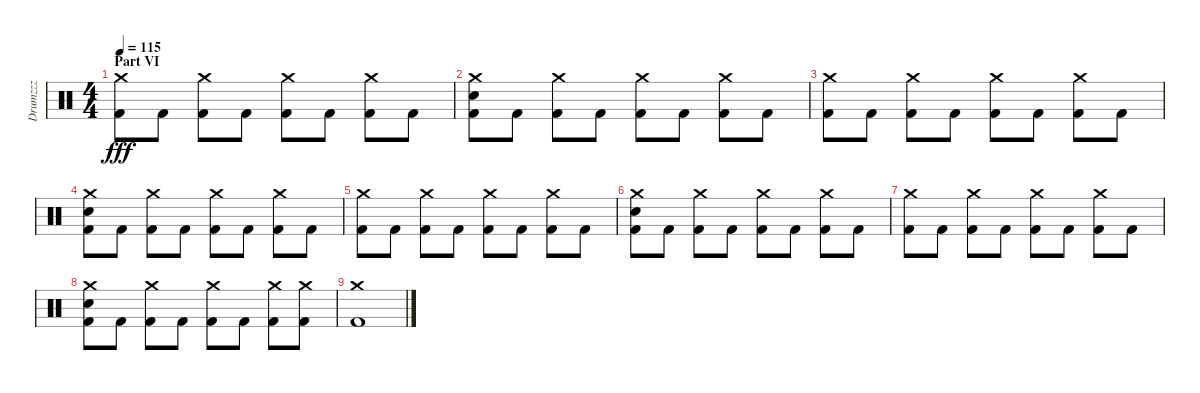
\track ("Drumzzz" "Drumzzz") {instrument percussion}
\staff {score}
\articulation defaults
\ts (4 4)
\section ("" "Part VI")
\tempo 115
\clef neutral
\ks c
("Crash medium (hit)" "Kick (hit) 2").8{dy fff} "Kick (hit) 2".8 ("Crash medium (hit)" "Kick (hit) 2").8 "Kick (hit) 2".8 ("Crash medium (hit)" "Kick (hit) 2").8 "Kick (hit) 2".8 ("Crash medium (hit)" "Kick (hit) 2").8 "Kick (hit) 2".8 |
("Crash medium (hit)" "Electric Snare (hit)" "Kick (hit) 2").8 "Kick (hit) 2".8 ("Crash medium (hit)" "Kick (hit) 2").8 "Kick (hit) 2".8 ("Crash medium (hit)" "Kick (hit) 2").8 "Kick (hit) 2".8 ("Crash medium (hit)" "Kick (hit) 2").8 "Kick (hit) 2".8 |
("Crash medium (hit)" "Kick (hit) 2").8 "Kick (hit) 2".8 ("Crash medium (hit)" "Kick (hit) 2").8 "Kick (hit) 2".8 ("Crash medium (hit)" "Kick (hit) 2").8 "Kick (hit) 2".8 ("Crash medium (hit)" "Kick (hit) 2").8 "Kick (hit) 2".8 |
("Crash medium (hit)" "Electric Snare (hit)" "Kick (hit) 2").8 "Kick (hit) 2".8 ("Crash medium (hit)" "Kick (hit) 2").8 "Kick (hit) 2".8 ("Crash medium (hit)" "Kick (hit) 2").8 "Kick (hit) 2".8 ("Crash medium (hit)" "Kick (hit) 2").8 "Kick (hit) 2".8 |
("Crash medium (hit)" "Kick (hit) 2").8 "Kick (hit) 2".8 ("Crash medium (hit)" "Kick (hit) 2").8 "Kick (hit) 2".8 ("Crash medium (hit)" "Kick (hit) 2").8 "Kick (hit) 2".8 ("Crash medium (hit)" "Kick (hit) 2").8 "Kick (hit) 2".8 |
("Crash medium (hit)" "Electric Snare (hit)" "Kick (hit) 2").8 "Kick (hit) 2".8 ("Crash medium (hit)" "Kick (hit) 2").8 "Kick (hit) 2".8 ("Crash medium (hit)" "Kick (hit) 2").8 "Kick (hit) 2".8 ("Crash medium (hit)" "Kick (hit) 2").8 "Kick (hit) 2".8 |
("Crash medium (hit)" "Kick (hit) 2").8 "Kick (hit) 2".8 ("Crash medium (hit)" "Kick (hit) 2").8 "Kick (hit) 2".8 ("Crash medium (hit)" "Kick (hit) 2").8 "Kick (hit) 2".8 ("Crash medium (hit)" "Kick (hit) 2").8 "Kick (hit) 2".8 |
("Crash medium (hit)" "Electric Snare (hit)" "Kick (hit) 2").8 "Kick (hit) 2".8 ("Crash medium (hit)" "Kick (hit) 2").8 "Kick (hit) 2".8 ("Crash medium (hit)" "Kick (hit) 2").8 "Kick (hit) 2".8 ("Crash medium (hit)" "Kick (hit) 2").8 ("Crash medium (hit)" "Kick (hit) 2").8 |
("Crash medium (hit)" "Kick (hit) 2").1
